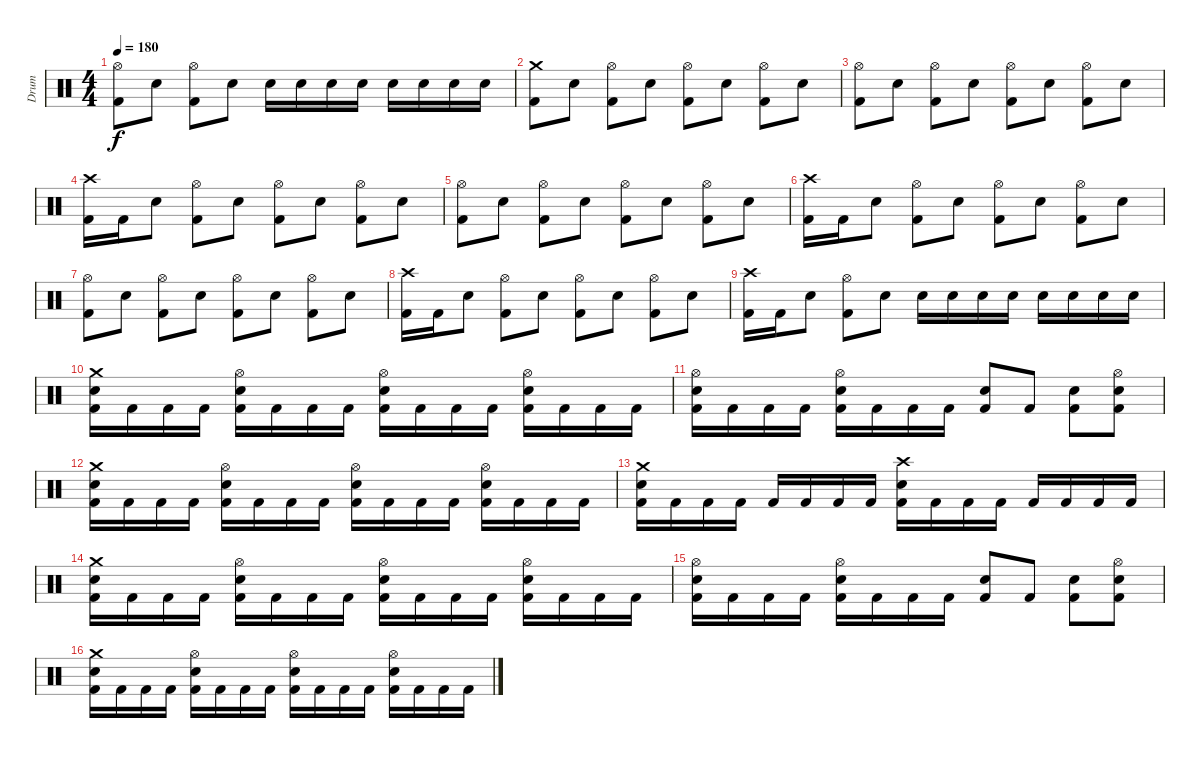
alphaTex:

\track ("Drum" "Drum") {instrument percussion}
\staff {score}
\articulation defaults
\ts (4 4)
\tempo 180
\clef neutral
\ks c
("Hi-Hat (open)" "Kick (hit) 2").8{dy f} "Electric Snare (hit)".8 ("Hi-Hat (open)" "Kick (hit) 2").8 "Electric Snare (hit)".8 "Electric Snare (hit)".16 "Electric Snare (hit)".16 "Electric Snare (hit)".16 "Electric Snare (hit)".16 "Electric Snare (hit)".16 "Electric Snare (hit)".16 "Electric Snare (hit)".16 "Electric Snare (hit)".16 |
("Crash medium (hit)" "Kick (hit) 2").8 "Electric Snare (hit)".8 ("Hi-Hat (open)" "Kick (hit) 2").8 "Electric Snare (hit)".8 ("Hi-Hat (open)" "Kick (hit) 2").8 "Electric Snare (hit)".8 ("Hi-Hat (open)" "Kick (hit) 2").8 "Electric Snare (hit)".8 |
("Hi-Hat (open)" "Kick (hit) 2").8 "Electric Snare (hit)".8 ("Hi-Hat (open)" "Kick (hit) 2").8 "Electric Snare (hit)".8 ("Hi-Hat (open)" "Kick (hit) 2").8 "Electric Snare (hit)".8 ("Hi-Hat (open)" "Kick (hit) 2").8 "Electric Snare (hit)".8 |
("Crash high (hit)" "Kick (hit) 2").16 "Kick (hit) 2".16 "Electric Snare (hit)".8 ("Hi-Hat (open)" "Kick (hit) 2").8 "Electric Snare (hit)".8 ("Hi-Hat (open)" "Kick (hit) 2").8 "Electric Snare (hit)".8 ("Hi-Hat (open)" "Kick (hit) 2").8 "Electric Snare (hit)".8 |
("Hi-Hat (open)" "Kick (hit) 2").8 "Electric Snare (hit)".8 ("Hi-Hat (open)" "Kick (hit) 2").8 "Electric Snare (hit)".8 ("Hi-Hat (open)" "Kick (hit) 2").8 "Electric Snare (hit)".8 ("Hi-Hat (open)" "Kick (hit) 2").8 "Electric Snare (hit)".8 |
("Crash high (hit)" "Kick (hit) 2").16 "Kick (hit) 2".16 "Electric Snare (hit)".8 ("Hi-Hat (open)" "Kick (hit) 2").8 "Electric Snare (hit)".8 ("Hi-Hat (open)" "Kick (hit) 2").8 "Electric Snare (hit)".8 ("Hi-Hat (open)" "Kick (hit) 2").8 "Electric Snare (hit)".8 |
("Hi-Hat (open)" "Kick (hit) 2").8 "Electric Snare (hit)".8 ("Hi-Hat (open)" "Kick (hit) 2").8 "Electric Snare (hit)".8 ("Hi-Hat (open)" "Kick (hit) 2").8 "Electric Snare (hit)".8 ("Hi-Hat (open)" "Kick (hit) 2").8 "Electric Snare (hit)".8 |
("Crash high (hit)" "Kick (hit) 2").16 "Kick (hit) 2".16 "Electric Snare (hit)".8 ("Hi-Hat (open)" "Kick (hit) 2").8 "Electric Snare (hit)".8 ("Hi-Hat (open)" "Kick (hit) 2").8 "Electric Snare (hit)".8 ("Hi-Hat (open)" "Kick (hit) 2").8 "Electric Snare (hit)".8 |
("Crash high (hit)" "Kick (hit) 2").16 "Kick (hit) 2".16 "Electric Snare (hit)".8 ("Hi-Hat (open)" "Kick (hit) 2").8 "Electric Snare (hit)".8 "Electric Snare (hit)".16 "Electric Snare (hit)".16 "Electric Snare (hit)".16 "Electric Snare (hit)".16 "Electric Snare (hit)".16 "Electric Snare (hit)".16 "Electric Snare (hit)".16 "Electric Snare (hit)".16 |
("Crash medium (hit)" "Electric Snare (hit)" "Kick (hit) 2").16 "Kick (hit) 2".16 "Kick (hit) 2".16 "Kick (hit) 2".16 ("Hi-Hat (open)" "Electric Snare (hit)" "Kick (hit) 2").16 "Kick (hit) 2".16 "Kick (hit) 2".16 "Kick (hit) 2".16 ("Hi-Hat (open)" "Electric Snare (hit)" "Kick (hit) 2").16 "Kick (hit) 2".16 "Kick (hit) 2".16 "Kick (hit) 2".16 ("Hi-Hat (open)" "Electric Snare (hit)" "Kick (hit) 2").16 "Kick (hit) 2".16 "Kick (hit) 2".16 "Kick (hit) 2".16 |
("Hi-Hat (open)" "Electric Snare (hit)" "Kick (hit) 2").16 "Kick (hit) 2".16 "Kick (hit) 2".16 "Kick (hit) 2".16 ("Hi-Hat (open)" "Electric Snare (hit)" "Kick (hit) 2").16 "Kick (hit) 2".16 "Kick (hit) 2".16 "Kick (hit) 2".16 ("Electric Snare (hit)" "Kick (hit) 2").8 "Kick (hit) 2".8 ("Electric Snare (hit)" "Kick (hit) 2").8 ("Hi-Hat (open)" "Electric Snare (hit)" "Kick (hit) 2").8 |
("Crash medium (hit)" "Electric Snare (hit)" "Kick (hit) 2").16 "Kick (hit) 2".16 "Kick (hit) 2".16 "Kick (hit) 2".16 ("Hi-Hat (open)" "Electric Snare (hit)" "Kick (hit) 2").16 "Kick (hit) 2".16 "Kick (hit) 2".16 "Kick (hit) 2".16 ("Hi-Hat (open)" "Electric Snare (hit)" "Kick (hit) 2").16 "Kick (hit) 2".16 "Kick (hit) 2".16 "Kick (hit) 2".16 ("Hi-Hat (open)" "Electric Snare (hit)" "Kick (hit) 2").16 "Kick (hit) 2".16 "Kick (hit) 2".16 "Kick (hit) 2".16 |
("Crash medium (hit)" "Electric Snare (hit)" "Kick (hit) 2").16 "Kick (hit) 2".16 "Kick (hit) 2".16 "Kick (hit) 2".16 "Kick (hit) 2".16 "Kick (hit) 2".16 "Kick (hit) 2".16 "Kick (hit) 2".16 ("Crash high (hit)" "Electric Snare (hit)" "Kick (hit) 2").16 "Kick (hit) 2".16 "Kick (hit) 2".16 "Kick (hit) 2".16 "Kick (hit) 2".16 "Kick (hit) 2".16 "Kick (hit) 2".16 "Kick (hit) 2".16 |
("Crash medium (hit)" "Electric Snare (hit)" "Kick (hit) 2").16 "Kick (hit) 2".16 "Kick (hit) 2".16 "Kick (hit) 2".16 ("Hi-Hat (open)" "Electric Snare (hit)" "Kick (hit) 2").16 "Kick (hit) 2".16 "Kick (hit) 2".16 "Kick (hit) 2".16 ("Hi-Hat (open)" "Electric Snare (hit)" "Kick (hit) 2").16 "Kick (hit) 2".16 "Kick (hit) 2".16 "Kick (hit) 2".16 ("Hi-Hat (open)" "Electric Snare (hit)" "Kick (hit) 2").16 "Kick (hit) 2".16 "Kick (hit) 2".16 "Kick (hit) 2".16 |
("Hi-Hat (open)" "Electric Snare (hit)" "Kick (hit) 2").16 "Kick (hit) 2".16 "Kick (hit) 2".16 "Kick (hit) 2".16 ("Hi-Hat (open)" "Electric Snare (hit)" "Kick (hit) 2").16 "Kick (hit) 2".16 "Kick (hit) 2".16 "Kick (hit) 2".16 ("Electric Snare (hit)" "Kick (hit) 2").8 "Kick (hit) 2".8 ("Electric Snare (hit)" "Kick (hit) 2").8 ("Hi-Hat (open)" "Electric Snare (hit)" "Kick (hit) 2").8 |
("Crash medium (hit)" "Electric Snare (hit)" "Kick (hit) 2").16 "Kick (hit) 2".16 "Kick (hit) 2".16 "Kick (hit) 2".16 ("Hi-Hat (open)" "Electric Snare (hit)" "Kick (hit) 2").16 "Kick (hit) 2".16 "Kick (hit) 2".16 "Kick (hit) 2".16 ("Hi-Hat (open)" "Electric Snare (hit)" "Kick (hit) 2").16 "Kick (hit) 2".16 "Kick (hit) 2".16 "Kick (hit) 2".16 ("Hi-Hat (open)" "Electric Snare (hit)" "Kick (hit) 2").16 "Kick (hit) 2".16 "Kick (hit) 2".16 "Kick (hit) 2".16
